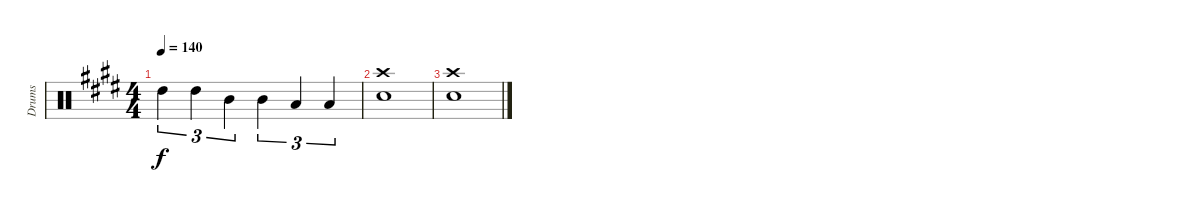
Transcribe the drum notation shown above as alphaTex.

\track ("Drums" "Drums") {instrument percussion}
\staff {score}
\articulation defaults
\ts (4 4)
\tempo 140
\clef neutral
\ks e "High Tom (hit)".4{tu (3 2) dy f} "High Tom (hit)".4{tu (3 2)} "Mid Tom (hit)".4{tu (3 2)} "Mid Tom (hit)".4{tu (3 2)} "Low Tom (hit)".4{tu (3 2)} "Low Tom (hit)".4{tu (3 2)}
|
("Crash high (hit)" "Electric Snare (hit)").1 |
("Crash high (hit)" "Electric Snare (hit)").1
